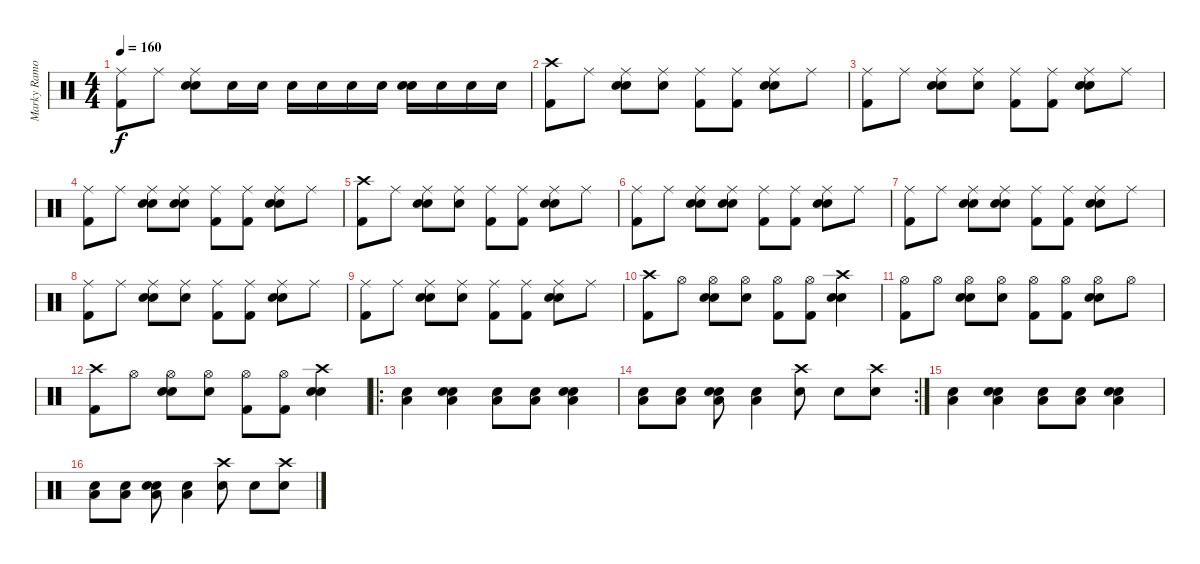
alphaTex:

\track ("Marky Ramone" "Marky Ramo") {instrument percussion}
\staff {score}
\articulation defaults
\ts (4 4)
\tempo 160
\clef neutral
\ks c
("Kick (hit) 2" "Ride (middle)").8{dy f} "Ride (middle)".8 ("Hand Clap (hit)" "Electric Snare (hit)" "Ride (middle)").8 "Hand Clap (hit)".16 "Electric Snare (hit)".16 "Electric Snare (hit)".16 "Electric Snare (hit)".16 "Electric Snare (hit)".16 "Electric Snare (hit)".16 ("Hand Clap (hit)" "Electric Snare (hit)").16 "Electric Snare (hit)".16 "Electric Snare (hit)".16 "Electric Snare (hit)".16 |
("Kick (hit) 2" "Crash high (hit)").8 "Ride (middle)".8 ("Hand Clap (hit)" "Electric Snare (hit)" "Ride (middle)").8 ("Hand Clap (hit)" "Ride (middle)").8 ("Kick (hit) 2" "Ride (middle)").8 ("Kick (hit) 2" "Ride (middle)").8 ("Hand Clap (hit)" "Electric Snare (hit)" "Ride (middle)").8 "Ride (middle)".8 |
("Kick (hit) 2" "Ride (middle)").8 "Ride (middle)".8 ("Hand Clap (hit)" "Electric Snare (hit)" "Ride (middle)").8 ("Hand Clap (hit)" "Ride (middle)").8 ("Kick (hit) 2" "Ride (middle)").8 ("Kick (hit) 2" "Ride (middle)").8 ("Hand Clap (hit)" "Electric Snare (hit)" "Ride (middle)").8 "Ride (middle)".8 |
("Kick (hit) 2" "Ride (middle)").8 "Ride (middle)".8 ("Hand Clap (hit)" "Electric Snare (hit)" "Ride (middle)").8 ("Hand Clap (hit)" "Electric Snare (hit)" "Ride (middle)").8 ("Kick (hit) 2" "Ride (middle)").8 ("Kick (hit) 2" "Ride (middle)").8 ("Hand Clap (hit)" "Electric Snare (hit)" "Ride (middle)").8 "Ride (middle)".8 |
("Kick (hit) 2" "Crash high (hit)").8 "Ride (middle)".8 ("Hand Clap (hit)" "Electric Snare (hit)" "Ride (middle)").8 ("Hand Clap (hit)" "Ride (middle)").8 ("Kick (hit) 2" "Ride (middle)").8 ("Kick (hit) 2" "Ride (middle)").8 ("Hand Clap (hit)" "Electric Snare (hit)" "Ride (middle)").8 "Ride (middle)".8 |
("Kick (hit) 2" "Ride (middle)").8 "Ride (middle)".8 ("Hand Clap (hit)" "Electric Snare (hit)" "Ride (middle)").8 ("Hand Clap (hit)" "Electric Snare (hit)" "Ride (middle)").8 ("Kick (hit) 2" "Ride (middle)").8 ("Kick (hit) 2" "Ride (middle)").8 ("Hand Clap (hit)" "Electric Snare (hit)" "Ride (middle)").8 "Ride (middle)".8 |
("Kick (hit) 2" "Ride (middle)").8 "Ride (middle)".8 ("Hand Clap (hit)" "Electric Snare (hit)" "Ride (middle)").8 ("Hand Clap (hit)" "Electric Snare (hit)" "Ride (middle)").8 ("Kick (hit) 2" "Ride (middle)").8 ("Kick (hit) 2" "Ride (middle)").8 ("Hand Clap (hit)" "Electric Snare (hit)" "Ride (middle)").8 "Ride (middle)".8 |
("Kick (hit) 2" "Ride (middle)").8 "Ride (middle)".8 ("Hand Clap (hit)" "Electric Snare (hit)" "Ride (middle)").8 ("Hand Clap (hit)" "Ride (middle)").8 ("Kick (hit) 2" "Ride (middle)").8 ("Kick (hit) 2" "Ride (middle)").8 ("Hand Clap (hit)" "Electric Snare (hit)" "Ride (middle)").8 "Ride (middle)".8 |
("Kick (hit) 2" "Ride (middle)").8 "Ride (middle)".8 ("Hand Clap (hit)" "Electric Snare (hit)" "Ride (middle)").8 ("Hand Clap (hit)" "Ride (middle)").8 ("Kick (hit) 2" "Ride (middle)").8 ("Kick (hit) 2" "Ride (middle)").8 ("Hand Clap (hit)" "Electric Snare (hit)" "Ride (middle)").8 "Ride (middle)".8 |
("Kick (hit) 2" "Crash high (hit)").8 "Hi-Hat (open)".8 ("Hand Clap (hit)" "Electric Snare (hit)" "Hi-Hat (open)").8 ("Hand Clap (hit)" "Hi-Hat (open)").8 ("Kick (hit) 2" "Hi-Hat (open)").8 ("Kick (hit) 2" "Hi-Hat (open)").8 ("Hand Clap (hit)" "Electric Snare (hit)" "Crash high (hit)").4 |
("Kick (hit) 2" "Hi-Hat (open)").8 "Hi-Hat (open)".8 ("Hand Clap (hit)" "Electric Snare (hit)" "Hi-Hat (open)").8 ("Hand Clap (hit)" "Hi-Hat (open)").8 ("Kick (hit) 2" "Hi-Hat (open)").8 ("Kick (hit) 2" "Hi-Hat (open)").8 ("Hand Clap (hit)" "Electric Snare (hit)" "Hi-Hat (open)").8 "Hi-Hat (open)".8 |
("Kick (hit) 2" "Crash high (hit)").8 "Hi-Hat (open)".8 ("Hand Clap (hit)" "Electric Snare (hit)" "Hi-Hat (open)").8 ("Hand Clap (hit)" "Hi-Hat (open)").8 ("Kick (hit) 2" "Hi-Hat (open)").8 ("Kick (hit) 2" "Hi-Hat (open)").8 ("Hand Clap (hit)" "Electric Snare (hit)" "Crash high (hit)").4 |
\ro
("Electric Snare (hit)" "Low Floor Tom (hit)").4 ("Hand Clap (hit)" "Electric Snare (hit)" "Low Floor Tom (hit)").4 ("Electric Snare (hit)" "Low Floor Tom (hit)").8 ("Electric Snare (hit)" "Low Floor Tom (hit)").8 ("Hand Clap (hit)" "Electric Snare (hit)" "Low Floor Tom (hit)").4 |
\rc 2
("Electric Snare (hit)" "Low Floor Tom (hit)").8 ("Electric Snare (hit)" "Low Floor Tom (hit)").8 ("Hand Clap (hit)" "Electric Snare (hit)" "Low Floor Tom (hit)").8 ("Electric Snare (hit)" "Low Floor Tom (hit)").4 ("Crash high (hit)" "Electric Snare (hit)").8 "Hand Clap (hit)".8 ("Crash high (hit)" "Electric Snare (hit)").8 |
("Electric Snare (hit)" "Low Floor Tom (hit)").4 ("Hand Clap (hit)" "Electric Snare (hit)" "Low Floor Tom (hit)").4 ("Electric Snare (hit)" "Low Floor Tom (hit)").8 ("Electric Snare (hit)" "Low Floor Tom (hit)").8 ("Hand Clap (hit)" "Electric Snare (hit)" "Low Floor Tom (hit)").4 |
("Electric Snare (hit)" "Low Floor Tom (hit)").8 ("Electric Snare (hit)" "Low Floor Tom (hit)").8 ("Hand Clap (hit)" "Electric Snare (hit)" "Low Floor Tom (hit)").8 ("Electric Snare (hit)" "Low Floor Tom (hit)").4 ("Crash high (hit)" "Electric Snare (hit)").8 "Hand Clap (hit)".8 ("Crash high (hit)" "Electric Snare (hit)").8
